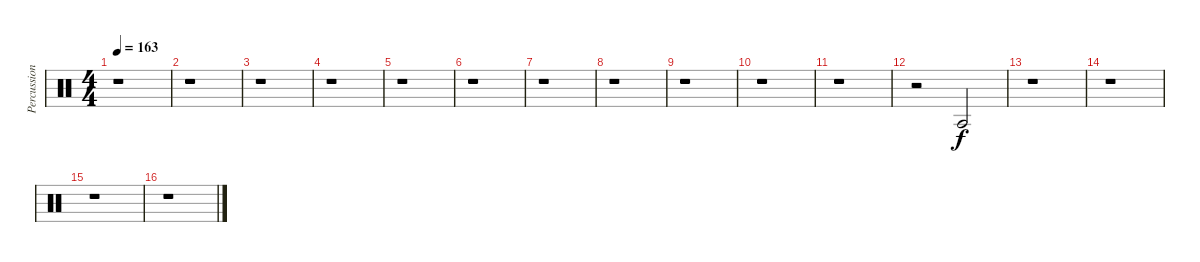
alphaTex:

\track ("Percussion" "Percussion") {instrument percussion}
\staff {score}
\articulation defaults
\ts (4 4)
\tempo 163
\clef neutral
\ks c
r.1{dy f} |
r.1 |
r.1 |
r.1 |
r.1 |
r.1 |
r.1 |
r.1 |
r.1 |
r.1 |
r.1 |
r.2 "Agogo tow (hit)".2 |
r.1 |
r.1 |
r.1 |
r.1
